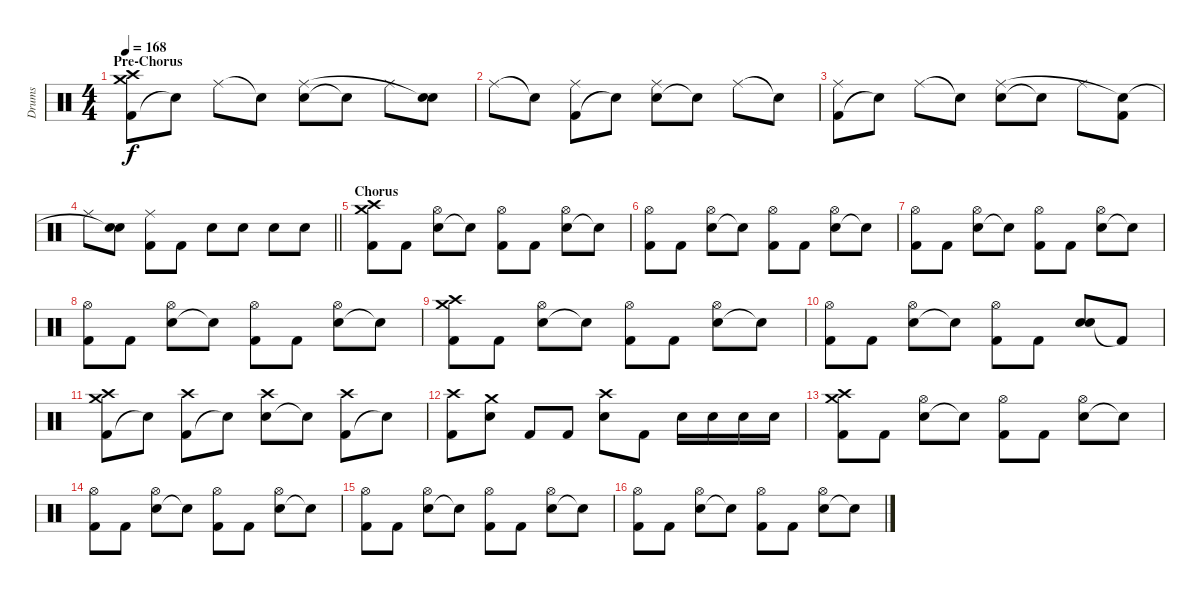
\track ("Drums" "Drums") {instrument percussion}
\staff {score}
\articulation defaults
\ts (4 4)
\section ("" "Pre-Chorus")
\tempo 168
\clef neutral
\ks c
("Kick (hit) 2" "Crash medium (hit)" "Crash high (hit)").8{dy f} "Snare (hit)"{t}.8 "Ride (middle)".8 "Snare (hit)"{t}.8 ("Electric Snare (hit)" "Ride (middle)").8 "Snare (hit)"{t}.8 "Ride (middle)".8 ("Electric Snare (hit)" "Snare (hit)"{t}).8 |
"Ride (middle)".8 "Snare (hit)"{t}.8 ("Kick (hit) 2" "Ride (middle)").8 "Snare (hit)"{t}.8 ("Electric Snare (hit)" "Ride (middle)").8 "Snare (hit)"{t}.8 "Ride (middle)".8 "Snare (hit)"{t}.8 |
("Kick (hit) 2" "Ride (middle)").8 "Snare (hit)"{t}.8 "Ride (middle)".8 "Snare (hit)"{t}.8 ("Electric Snare (hit)" "Ride (middle)").8 "Snare (hit)"{t}.8 "Ride (middle)".8 ("Kick (hit) 2" "Snare (hit)"{t}).8 |
\barLineRight lightlight "Ride (middle)".8
("Electric Snare (hit)" "Snare (hit)"{t}).8 ("Kick (hit) 2" "Ride (middle)").8 "Kick (hit) 2".8 "Electric Snare (hit)".8 "Electric Snare (hit)".8 "Electric Snare (hit)".8 "Electric Snare (hit)".8 |
\section ("" "Chorus")
("Kick (hit) 2" "Crash medium (hit)" "Crash high (hit)").8 "Kick (hit) 2".8 ("Electric Snare (hit)" "Hi-Hat (open)").8 "Snare (hit)"{t}.8 ("Kick (hit) 2" "Hi-Hat (open)").8 "Kick (hit) 2".8 ("Electric Snare (hit)" "Hi-Hat (open)").8 "Snare (hit)"{t}.8 |
("Kick (hit) 2" "Hi-Hat (open)").8 "Kick (hit) 2".8 ("Electric Snare (hit)" "Hi-Hat (open)").8 "Snare (hit)"{t}.8 ("Kick (hit) 2" "Hi-Hat (open)").8 "Kick (hit) 2".8 ("Electric Snare (hit)" "Hi-Hat (open)").8 "Snare (hit)"{t}.8 |
("Kick (hit) 2" "Hi-Hat (open)").8 "Kick (hit) 2".8 ("Electric Snare (hit)" "Hi-Hat (open)").8 "Snare (hit)"{t}.8 ("Kick (hit) 2" "Hi-Hat (open)").8 "Kick (hit) 2".8 ("Electric Snare (hit)" "Hi-Hat (open)").8 "Snare (hit)"{t}.8 |
("Kick (hit) 2" "Hi-Hat (open)").8 "Kick (hit) 2".8 ("Electric Snare (hit)" "Hi-Hat (open)").8 "Snare (hit)"{t}.8 ("Kick (hit) 2" "Hi-Hat (open)").8 "Kick (hit) 2".8 ("Electric Snare (hit)" "Hi-Hat (open)").8 "Snare (hit)"{t}.8 |
("Kick (hit) 2" "Crash medium (hit)" "Crash high (hit)").8 "Kick (hit) 2".8 ("Electric Snare (hit)" "Hi-Hat (open)").8 "Snare (hit)"{t}.8 ("Kick (hit) 2" "Hi-Hat (open)").8 "Kick (hit) 2".8 ("Electric Snare (hit)" "Hi-Hat (open)").8 "Snare (hit)"{t}.8 |
("Kick (hit) 2" "Hi-Hat (open)").8 "Kick (hit) 2".8 ("Electric Snare (hit)" "Hi-Hat (open)").8 "Snare (hit)"{t}.8 ("Kick (hit) 2" "Hi-Hat (open)").8 "Kick (hit) 2".8 ("Electric Snare (hit)" "Electric Snare (hit)").8 "Kick (hit) 2"{t}.8 |
("Kick (hit) 2" "Crash medium (hit)" "Crash high (hit)").8 "Snare (hit)"{t}.8 ("Kick (hit) 2" "Crash high (hit)").8 "Snare (hit)"{t}.8 ("Electric Snare (hit)" "Crash high (hit)").8 "Snare (hit)"{t}.8 ("Kick (hit) 2" "Crash high (hit)").8 "Snare (hit)"{t}.8 |
("Kick (hit) 2" "Crash high (hit)").8 ("Electric Snare (hit)" "Crash medium (hit)").8 "Kick (hit) 2".8 "Kick (hit) 2".8 ("Electric Snare (hit)" "Crash high (hit)").8 "Kick (hit) 2".8 "Electric Snare (hit)".16 "Electric Snare (hit)".16 "Electric Snare (hit)".16 "Electric Snare (hit)".16 |
("Kick (hit) 2" "Crash medium (hit)" "Crash high (hit)").8 "Kick (hit) 2".8 ("Electric Snare (hit)" "Hi-Hat (open)").8 "Snare (hit)"{t}.8 ("Kick (hit) 2" "Hi-Hat (open)").8 "Kick (hit) 2".8 ("Electric Snare (hit)" "Hi-Hat (open)").8 "Snare (hit)"{t}.8 |
("Kick (hit) 2" "Hi-Hat (open)").8 "Kick (hit) 2".8 ("Electric Snare (hit)" "Hi-Hat (open)").8 "Snare (hit)"{t}.8 ("Kick (hit) 2" "Hi-Hat (open)").8 "Kick (hit) 2".8 ("Electric Snare (hit)" "Hi-Hat (open)").8 "Snare (hit)"{t}.8 |
("Kick (hit) 2" "Hi-Hat (open)").8 "Kick (hit) 2".8 ("Electric Snare (hit)" "Hi-Hat (open)").8 "Snare (hit)"{t}.8 ("Kick (hit) 2" "Hi-Hat (open)").8 "Kick (hit) 2".8 ("Electric Snare (hit)" "Hi-Hat (open)").8 "Snare (hit)"{t}.8 |
("Kick (hit) 2" "Hi-Hat (open)").8 "Kick (hit) 2".8 ("Electric Snare (hit)" "Hi-Hat (open)").8 "Snare (hit)"{t}.8 ("Kick (hit) 2" "Hi-Hat (open)").8 "Kick (hit) 2".8 ("Electric Snare (hit)" "Hi-Hat (open)").8 "Snare (hit)"{t}.8
